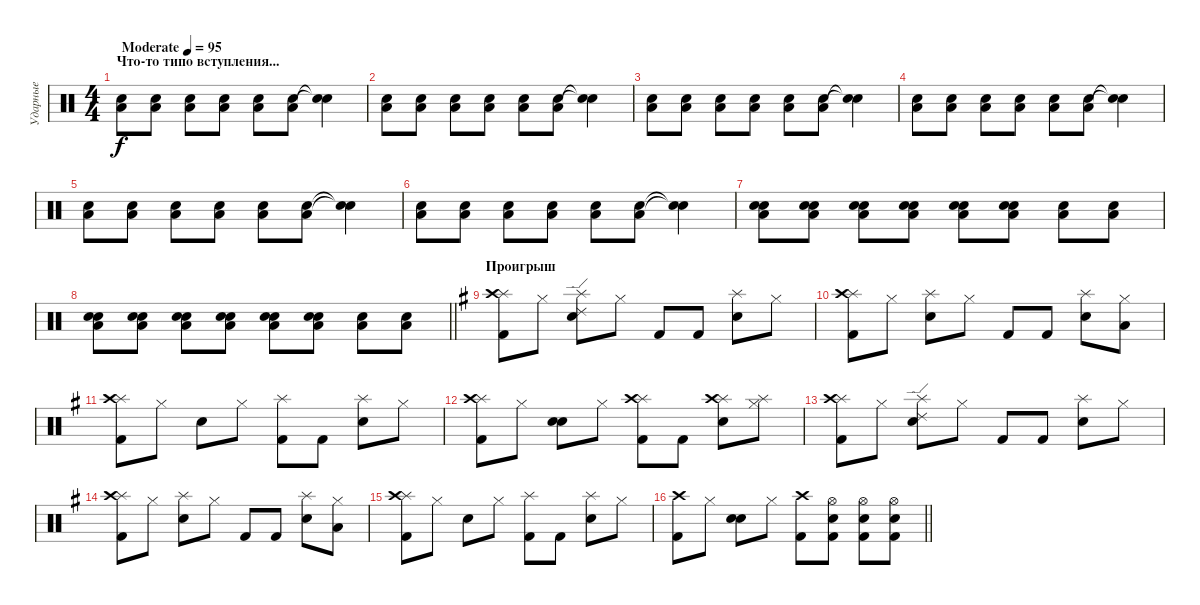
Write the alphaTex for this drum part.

\track ("Ударные" "Ударные") {instrument percussion}
\staff {score}
\articulation defaults
\ts (4 4)
\section ("" "Что-то типо вступления...")
\tempo (95 "Moderate")
\clef neutral
\ks c
("Hand Clap (hit)" "Low Floor Tom (hit)").8{dy f volume 8} ("Hand Clap (hit)" "Low Floor Tom (hit)").8 ("Hand Clap (hit)" "Low Floor Tom (hit)").8 ("Hand Clap (hit)" "Low Floor Tom (hit)").8 ("Hand Clap (hit)" "Low Floor Tom (hit)").8 ("Hand Clap (hit)" "Low Floor Tom (hit)").8 ("Snare (hit)"{t} "Snare (hit)"{t}).4 |
("Hand Clap (hit)" "Low Floor Tom (hit)").8 ("Hand Clap (hit)" "Low Floor Tom (hit)").8 ("Hand Clap (hit)" "Low Floor Tom (hit)").8 ("Hand Clap (hit)" "Low Floor Tom (hit)").8 ("Hand Clap (hit)" "Low Floor Tom (hit)").8 ("Hand Clap (hit)" "Low Floor Tom (hit)").8 ("Snare (hit)"{t} "Snare (hit)"{t}).4 |
("Hand Clap (hit)" "Low Floor Tom (hit)").8 ("Hand Clap (hit)" "Low Floor Tom (hit)").8 ("Hand Clap (hit)" "Low Floor Tom (hit)").8 ("Hand Clap (hit)" "Low Floor Tom (hit)").8 ("Hand Clap (hit)" "Low Floor Tom (hit)").8 ("Hand Clap (hit)" "Low Floor Tom (hit)").8 ("Snare (hit)"{t} "Snare (hit)"{t}).4 |
("Hand Clap (hit)" "Low Floor Tom (hit)").8 ("Hand Clap (hit)" "Low Floor Tom (hit)").8 ("Hand Clap (hit)" "Low Floor Tom (hit)").8 ("Hand Clap (hit)" "Low Floor Tom (hit)").8 ("Hand Clap (hit)" "Low Floor Tom (hit)").8 ("Hand Clap (hit)" "Low Floor Tom (hit)").8 ("Snare (hit)"{t} "Snare (hit)"{t}).4 |
("Hand Clap (hit)" "Low Floor Tom (hit)").8{volume 13} ("Hand Clap (hit)" "Low Floor Tom (hit)").8 ("Hand Clap (hit)" "Low Floor Tom (hit)").8 ("Hand Clap (hit)" "Low Floor Tom (hit)").8 ("Hand Clap (hit)" "Low Floor Tom (hit)").8 ("Hand Clap (hit)" "Low Floor Tom (hit)").8 ("Snare (hit)"{t} "Snare (hit)"{t}).4 |
("Hand Clap (hit)" "Low Floor Tom (hit)").8 ("Hand Clap (hit)" "Low Floor Tom (hit)").8 ("Hand Clap (hit)" "Low Floor Tom (hit)").8 ("Hand Clap (hit)" "Low Floor Tom (hit)").8 ("Hand Clap (hit)" "Low Floor Tom (hit)").8 ("Hand Clap (hit)" "Low Floor Tom (hit)").8 ("Snare (hit)"{t} "Snare (hit)"{t}).4 |
("Hand Clap (hit)" "Low Floor Tom (hit)" "Snare (hit) 2").8 ("Hand Clap (hit)" "Low Floor Tom (hit)" "Snare (hit) 2").8 ("Hand Clap (hit)" "Low Floor Tom (hit)" "Snare (hit) 2").8 ("Hand Clap (hit)" "Low Floor Tom (hit)" "Snare (hit) 2").8 ("Hand Clap (hit)" "Low Floor Tom (hit)" "Snare (hit) 2").8 ("Hand Clap (hit)" "Low Floor Tom (hit)" "Snare (hit) 2").8 ("Low Floor Tom (hit)" "Snare (hit) 2").8 ("Low Floor Tom (hit)" "Snare (hit) 2").8 |
\barLineRight lightlight
("Hand Clap (hit)" "Low Floor Tom (hit)" "Snare (hit) 2").8 ("Hand Clap (hit)" "Low Floor Tom (hit)" "Snare (hit) 2").8 ("Hand Clap (hit)" "Low Floor Tom (hit)" "Snare (hit) 2").8 ("Hand Clap (hit)" "Low Floor Tom (hit)" "Snare (hit) 2").8 ("Hand Clap (hit)" "Low Floor Tom (hit)" "Snare (hit) 2").8 ("Hand Clap (hit)" "Low Floor Tom (hit)" "Snare (hit) 2").8 ("Low Floor Tom (hit)" "Snare (hit) 2").8 ("Low Floor Tom (hit)" "Snare (hit) 2").8 |
\section ("" "Проигрыш")
\ks eminor
("Splash (hit)" "Crash high (hit)" "Kick (hit) 2").8 "Hi-Hat (closed)".8 ("Splash (hit)" "Snare (hit) 2" "Ride (edge) 2").8 "Hi-Hat (closed)".8 "Kick (hit) 2".8 "Kick (hit) 2".8 ("Splash (hit)" "Snare (hit) 2").8 "Hi-Hat (closed)".8 |
("Splash (hit)" "Crash high (hit)" "Kick (hit) 2").8 "Hi-Hat (closed)".8 ("Snare (hit) 2" "Splash (hit)").8 "Hi-Hat (closed)".8 "Kick (hit) 2".8 "Kick (hit) 2".8 ("Splash (hit)" "Snare (hit) 2").8 ("Hi-Hat (closed)" "Low Tom (hit)").8 |
("Splash (hit)" "Crash high (hit)" "Kick (hit) 2").8 "Hi-Hat (closed)".8 "Snare (hit) 2".8 "Hi-Hat (closed)".8 ("Splash (hit)" "Kick (hit) 2").8 "Kick (hit) 2".8 ("Splash (hit)" "Snare (hit) 2").8 "Hi-Hat (closed)".8 |
("Splash (hit)" "Crash high (hit)" "Kick (hit) 2").8 "Hi-Hat (closed)".8 ("Snare (hit) 2" "Electric Snare (hit)").8 "Hi-Hat (closed)".8 ("Splash (hit)" "Crash high (hit)" "Kick (hit) 2").8 "Kick (hit) 2".8 ("Splash (hit)" "Snare (hit) 2" "Crash high (hit)").8 ("Hi-Hat (closed)" "Splash (hit)").8 |
("Splash (hit)" "Crash high (hit)" "Kick (hit) 2").8 "Hi-Hat (closed)".8 ("Splash (hit)" "Snare (hit) 2" "Ride (edge) 2").8 "Hi-Hat (closed)".8 "Kick (hit) 2".8 "Kick (hit) 2".8 ("Splash (hit)" "Snare (hit) 2").8 "Hi-Hat (closed)".8 |
("Splash (hit)" "Crash high (hit)" "Kick (hit) 2").8 "Hi-Hat (closed)".8 ("Snare (hit) 2" "Splash (hit)").8 "Hi-Hat (closed)".8 "Kick (hit) 2".8 "Kick (hit) 2".8 ("Splash (hit)" "Snare (hit) 2").8 ("Hi-Hat (closed)" "Low Tom (hit)").8 |
("Splash (hit)" "Crash high (hit)" "Kick (hit) 2").8 "Hi-Hat (closed)".8 "Snare (hit) 2".8 "Hi-Hat (closed)".8 ("Splash (hit)" "Kick (hit) 2").8 "Kick (hit) 2".8 ("Splash (hit)" "Snare (hit) 2").8 "Hi-Hat (closed)".8 |
\barLineRight lightlight
("Crash high (hit)" "Kick (hit) 2").8 "Hi-Hat (closed)".8 ("Snare (hit) 2" "Electric Snare (hit)").8 "Hi-Hat (closed)".8 ("Crash high (hit)" "Kick (hit) 2").8 ("Snare (hit) 2" "Hi-Hat (open)" "Kick (hit) 2").8 ("Snare (hit) 2" "Hi-Hat (open)" "Kick (hit) 2").8 ("Snare (hit) 2" "Hi-Hat (open)" "Kick (hit) 2").8
